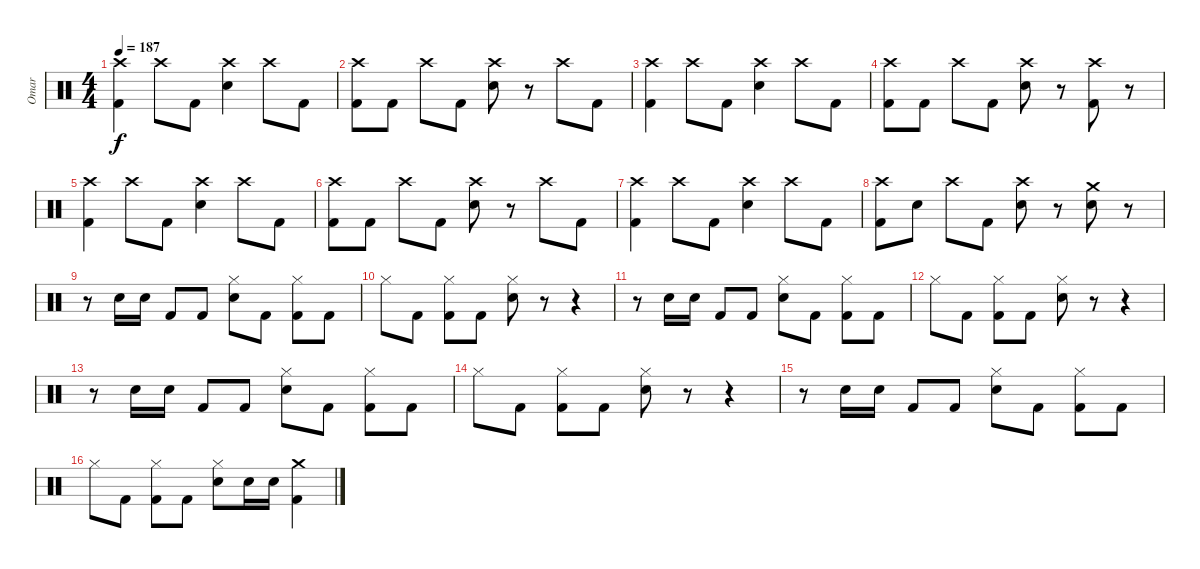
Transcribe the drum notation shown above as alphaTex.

\track ("Omar" "Omar") {instrument percussion}
\staff {score}
\articulation defaults
\ts (4 4)
\tempo 187
\clef neutral
\ks c
("Crash high (hit)" "Kick (hit) 2").4{dy f} "Crash high (hit)".8 "Kick (hit) 2".8 ("Crash high (hit)" "Snare (hit) 2").4 "Crash high (hit)".8 "Kick (hit) 2".8 |
("Crash high (hit)" "Kick (hit) 2").8 "Kick (hit) 2".8 "Crash high (hit)".8 "Kick (hit) 2".8 ("Crash high (hit)" "Snare (hit) 2").8 r.8 "Crash high (hit)".8 "Kick (hit) 2".8 |
("Crash high (hit)" "Kick (hit) 2").4 "Crash high (hit)".8 "Kick (hit) 2".8 ("Crash high (hit)" "Snare (hit) 2").4 "Crash high (hit)".8 "Kick (hit) 2".8 |
("Crash high (hit)" "Kick (hit) 2").8 "Kick (hit) 2".8 "Crash high (hit)".8 "Kick (hit) 2".8 ("Crash high (hit)" "Snare (hit) 2").8 r.8 ("Crash high (hit)" "Kick (hit) 2").8 r.8 |
("Crash high (hit)" "Kick (hit) 2").4 "Crash high (hit)".8 "Kick (hit) 2".8 ("Crash high (hit)" "Snare (hit) 2").4 "Crash high (hit)".8 "Kick (hit) 2".8 |
("Crash high (hit)" "Kick (hit) 2").8 "Kick (hit) 2".8 "Crash high (hit)".8 "Kick (hit) 2".8 ("Crash high (hit)" "Snare (hit) 2").8 r.8 "Crash high (hit)".8 "Kick (hit) 2".8 |
("Crash high (hit)" "Kick (hit) 2").4 "Crash high (hit)".8 "Kick (hit) 2".8 ("Crash high (hit)" "Snare (hit) 2").4 "Crash high (hit)".8 "Kick (hit) 2".8 |
("Crash high (hit)" "Kick (hit) 2").8 "Snare (hit) 2".8 "Crash high (hit)".8 "Kick (hit) 2".8 ("Crash high (hit)" "Snare (hit) 2").8 r.8 ("Crash medium (hit)" "Snare (hit) 2").8 r.8 |
r.8 "Snare (hit) 2".16 "Snare (hit) 2".16 "Kick (hit) 2".8 "Kick (hit) 2".8 ("Hi-Hat (closed)" "Snare (hit) 2").8 "Kick (hit) 2".8 ("Hi-Hat (closed)" "Kick (hit) 2").8 "Kick (hit) 2".8 |
"Hi-Hat (closed)".8 "Kick (hit) 2".8 ("Hi-Hat (closed)" "Kick (hit) 2").8 "Kick (hit) 2".8 ("Hi-Hat (closed)" "Snare (hit) 2").8 r.8 r.4 |
r.8 "Snare (hit) 2".16 "Snare (hit) 2".16 "Kick (hit) 2".8 "Kick (hit) 2".8 ("Hi-Hat (closed)" "Snare (hit) 2").8 "Kick (hit) 2".8 ("Hi-Hat (closed)" "Kick (hit) 2").8 "Kick (hit) 2".8 |
"Hi-Hat (closed)".8 "Kick (hit) 2".8 ("Hi-Hat (closed)" "Kick (hit) 2").8 "Kick (hit) 2".8 ("Hi-Hat (closed)" "Snare (hit) 2").8 r.8 r.4 |
r.8 "Snare (hit) 2".16 "Snare (hit) 2".16 "Kick (hit) 2".8 "Kick (hit) 2".8 ("Hi-Hat (closed)" "Snare (hit) 2").8 "Kick (hit) 2".8 ("Hi-Hat (closed)" "Kick (hit) 2").8 "Kick (hit) 2".8 |
"Hi-Hat (closed)".8 "Kick (hit) 2".8 ("Hi-Hat (closed)" "Kick (hit) 2").8 "Kick (hit) 2".8 ("Hi-Hat (closed)" "Snare (hit) 2").8 r.8 r.4 |
r.8 "Snare (hit) 2".16 "Snare (hit) 2".16 "Kick (hit) 2".8 "Kick (hit) 2".8 ("Hi-Hat (closed)" "Snare (hit) 2").8 "Kick (hit) 2".8 ("Hi-Hat (closed)" "Kick (hit) 2").8 "Kick (hit) 2".8 |
"Hi-Hat (closed)".8 "Kick (hit) 2".8 ("Hi-Hat (closed)" "Kick (hit) 2").8 "Kick (hit) 2".8 ("Hi-Hat (closed)" "Snare (hit) 2").8 "Snare (hit) 2".16 "Snare (hit) 2".16 ("Crash medium (hit)" "Kick (hit) 2").4
